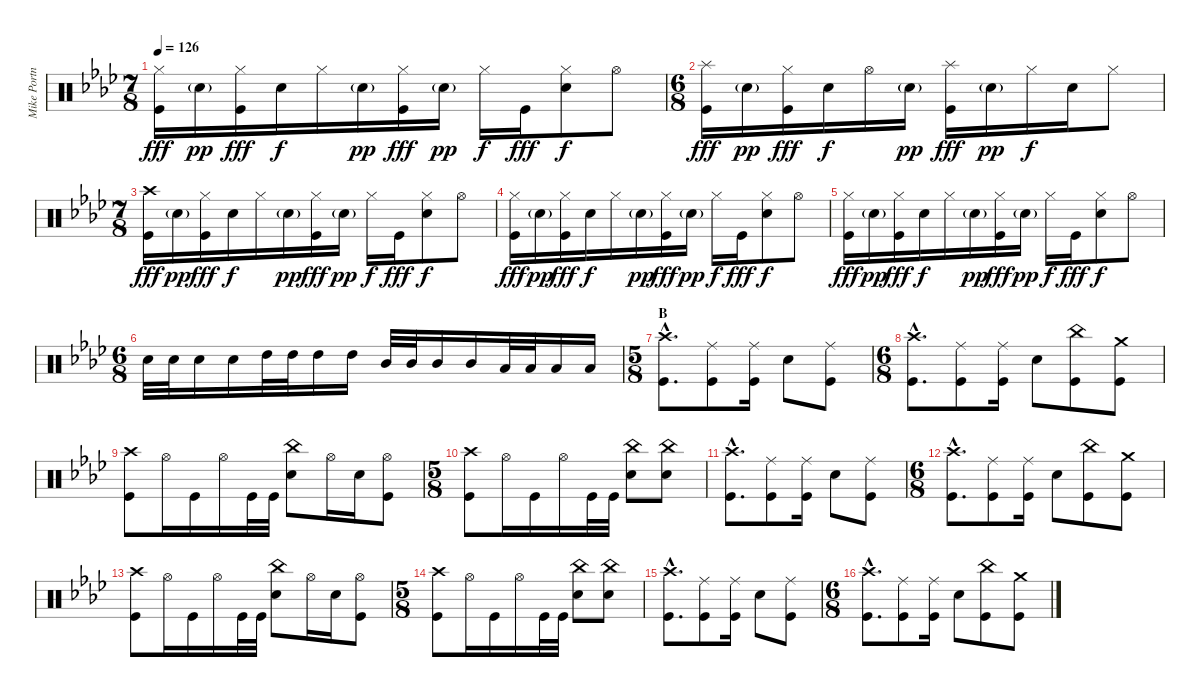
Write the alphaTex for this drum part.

\track ("Mike Portnoy" "Mike Portn") {instrument percussion}
\staff {score}
\articulation defaults
\ts (7 8)
\tempo 126
\clef neutral
\ks ab
("Hi-Hat (closed)" "Kick (hit)").16{dy fff} "Electric Snare (hit)"{g}.16{dy pp} ("Hi-Hat (closed)" "Kick (hit)").16{dy fff} "Electric Snare (hit)".16{dy f} "Hi-Hat (closed)".16 "Electric Snare (hit)"{g}.16{dy pp} ("Hi-Hat (closed)" "Kick (hit)").16{dy fff} "Electric Snare (hit)"{g}.16{dy pp} "Hi-Hat (closed)".16{dy f} "Kick (hit)".16{dy fff} ("Hi-Hat (closed)" "Electric Snare (hit)").8{dy f} "Hi-Hat (open)".8 |
\ts (6 8)
("Splash (hit)" "Kick (hit)").16{dy fff} "Electric Snare (hit)"{g}.16{dy pp} ("Hi-Hat (closed)" "Kick (hit)").16{dy fff} "Electric Snare (hit)".16{dy f} "Hi-Hat (open)".16 "Electric Snare (hit)"{g}.16{dy pp} ("Splash (hit)" "Kick (hit)").16{dy fff} "Electric Snare (hit)"{g}.16{dy pp} "Hi-Hat (closed)".16{dy f} "Electric Snare (hit)".16 "Hi-Hat (closed)".8 |
\ts (7 8)
("Crash high (hit)" "Kick (hit)").16{dy fff} "Electric Snare (hit)"{g}.16{dy pp} ("Hi-Hat (closed)" "Kick (hit)").16{dy fff} "Electric Snare (hit)".16{dy f} "Hi-Hat (closed)".16 "Electric Snare (hit)"{g}.16{dy pp} ("Hi-Hat (closed)" "Kick (hit)").16{dy fff} "Electric Snare (hit)"{g}.16{dy pp} "Hi-Hat (closed)".16{dy f} "Kick (hit)".16{dy fff} ("Hi-Hat (closed)" "Electric Snare (hit)").8{dy f} "Hi-Hat (open)".8 |
("Hi-Hat (closed)" "Kick (hit)").16{dy fff} "Electric Snare (hit)"{g}.16{dy pp} ("Hi-Hat (closed)" "Kick (hit)").16{dy fff} "Electric Snare (hit)".16{dy f} "Hi-Hat (closed)".16 "Electric Snare (hit)"{g}.16{dy pp} ("Hi-Hat (closed)" "Kick (hit)").16{dy fff} "Electric Snare (hit)"{g}.16{dy pp} "Hi-Hat (closed)".16{dy f} "Kick (hit)".16{dy fff} ("Hi-Hat (closed)" "Electric Snare (hit)").8{dy f} "Hi-Hat (open)".8 |
("Hi-Hat (closed)" "Kick (hit)").16{dy fff} "Electric Snare (hit)"{g}.16{dy pp} ("Hi-Hat (closed)" "Kick (hit)").16{dy fff} "Electric Snare (hit)".16{dy f} "Hi-Hat (closed)".16 "Electric Snare (hit)"{g}.16{dy pp} ("Hi-Hat (closed)" "Kick (hit)").16{dy fff} "Electric Snare (hit)"{g}.16{dy pp} "Hi-Hat (closed)".16{dy f} "Kick (hit)".16{dy fff} ("Hi-Hat (closed)" "Electric Snare (hit)").8{dy f} "Hi-Hat (open)".8 |
\ts (6 8)
"Electric Snare (hit)".32 "Electric Snare (hit)".32 "Electric Snare (hit)".16 "Electric Snare (hit)".16 "High Tom (hit)".32 "High Tom (hit)".32 "High Tom (hit)".16 "High Tom (hit)".16 "Mid Tom (hit)".32 "Mid Tom (hit)".32 "Mid Tom (hit)".16 "Mid Tom (hit)".16 "Low Tom (hit)".32 "Low Tom (hit)".32 "Low Tom (hit)".16 "Low Tom (hit)".16 |
\ts (5 8)
\section ("" "B")
("Crash high (hit)"{hac} "Kick (hit)"{hac}).8{d} ("Ride (middle)" "Kick (hit)").8 ("Ride (middle)" "Kick (hit)").16 "Electric Snare (hit)".8 ("Ride (middle)" "Kick (hit)").8 |
\ts (6 8)
("Crash high (hit)"{hac} "Kick (hit)"{hac}).8{d} ("Ride (middle)" "Kick (hit)").8 ("Ride (middle)" "Kick (hit)").16 "Electric Snare (hit)".8 ("China (hit)" "Kick (hit)").8 ("Crash medium (hit)" "Kick (hit)").8 |
("Crash high (hit)" "Kick (hit)").8 "Hi-Hat (open)".16 "Kick (hit)".16 "Hi-Hat (open)".16 "Kick (hit)".32 "Kick (hit)".32 ("China (hit)" "Electric Snare (hit)").8 "Hi-Hat (open)".16 "Electric Snare (hit)".16 ("Hi-Hat (open)" "Kick (hit)").8 |
\ts (5 8)
("Crash high (hit)" "Kick (hit)").8 "Hi-Hat (open)".16 "Kick (hit)".16 "Hi-Hat (open)".16 "Kick (hit)".32 "Kick (hit)".32 ("China (hit)" "Electric Snare (hit)").8 ("China (hit)" "Electric Snare (hit)").8 |
("Crash high (hit)"{hac} "Kick (hit)"{hac}).8{d} ("Ride (middle)" "Kick (hit)").8 ("Ride (middle)" "Kick (hit)").16 "Electric Snare (hit)".8 ("Ride (middle)" "Kick (hit)").8 |
\ts (6 8)
("Crash high (hit)"{hac} "Kick (hit)"{hac}).8{d} ("Ride (middle)" "Kick (hit)").8 ("Ride (middle)" "Kick (hit)").16 "Electric Snare (hit)".8 ("China (hit)" "Kick (hit)").8 ("Crash medium (hit)" "Kick (hit)").8 |
("Crash high (hit)" "Kick (hit)").8 "Hi-Hat (open)".16 "Kick (hit)".16 "Hi-Hat (open)".16 "Kick (hit)".32 "Kick (hit)".32 ("China (hit)" "Electric Snare (hit)").8 "Hi-Hat (open)".16 "Electric Snare (hit)".16 ("Hi-Hat (open)" "Kick (hit)").8 |
\ts (5 8)
("Crash high (hit)" "Kick (hit)").8 "Hi-Hat (open)".16 "Kick (hit)".16 "Hi-Hat (open)".16 "Kick (hit)".32 "Kick (hit)".32 ("China (hit)" "Electric Snare (hit)").8 ("China (hit)" "Electric Snare (hit)").8 |
("Crash high (hit)"{hac} "Kick (hit)"{hac}).8{d} ("Ride (middle)" "Kick (hit)").8 ("Ride (middle)" "Kick (hit)").16 "Electric Snare (hit)".8 ("Ride (middle)" "Kick (hit)").8 |
\ts (6 8)
("Crash high (hit)"{hac} "Kick (hit)"{hac}).8{d} ("Ride (middle)" "Kick (hit)").8 ("Ride (middle)" "Kick (hit)").16 "Electric Snare (hit)".8 ("China (hit)" "Kick (hit)").8 ("Crash medium (hit)" "Kick (hit)").8
